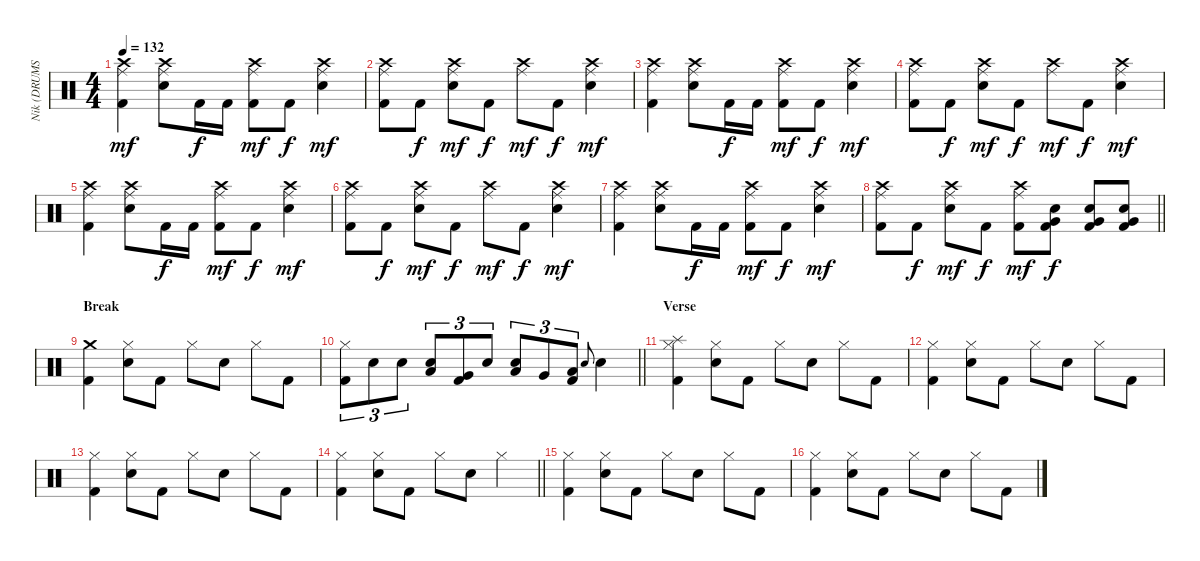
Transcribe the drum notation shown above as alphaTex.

\track ("Nik (DRUMS)" "Nik (DRUMS") {instrument percussion}
\staff {score}
\articulation defaults
\ts (4 4)
\tempo 132
\clef neutral
\ks c
("Crash high (hit)" "Ride (middle)" "Kick (hit) 2").4{dy mf} ("Crash high (hit)" "Ride (middle)" "Electric Snare (hit)").8 "Kick (hit) 2".16{dy f} "Kick (hit) 2".16 ("Crash high (hit)" "Ride (middle)" "Kick (hit) 2").8{dy mf} "Kick (hit) 2".8{dy f} ("Crash high (hit)" "Ride (middle)" "Electric Snare (hit)").4{dy mf} |
("Crash high (hit)" "Ride (middle)" "Kick (hit) 2").8 "Kick (hit) 2".8{dy f} ("Crash high (hit)" "Ride (middle)" "Electric Snare (hit)").8{dy mf} "Kick (hit) 2".8{dy f} ("Crash high (hit)" "Ride (middle)").8{dy mf} "Kick (hit) 2".8{dy f} ("Crash high (hit)" "Ride (middle)" "Electric Snare (hit)").4{dy mf} |
("Crash high (hit)" "Ride (middle)" "Kick (hit) 2").4 ("Crash high (hit)" "Ride (middle)" "Electric Snare (hit)").8 "Kick (hit) 2".16{dy f} "Kick (hit) 2".16 ("Crash high (hit)" "Ride (middle)" "Kick (hit) 2").8{dy mf} "Kick (hit) 2".8{dy f} ("Crash high (hit)" "Ride (middle)" "Electric Snare (hit)").4{dy mf} |
("Crash high (hit)" "Ride (middle)" "Kick (hit) 2").8 "Kick (hit) 2".8{dy f} ("Crash high (hit)" "Ride (middle)" "Electric Snare (hit)").8{dy mf} "Kick (hit) 2".8{dy f} ("Crash high (hit)" "Ride (middle)").8{dy mf} "Kick (hit) 2".8{dy f} ("Crash high (hit)" "Ride (middle)" "Electric Snare (hit)").4{dy mf} |
("Crash high (hit)" "Ride (middle)" "Kick (hit) 2").4 ("Crash high (hit)" "Ride (middle)" "Electric Snare (hit)").8 "Kick (hit) 2".16{dy f} "Kick (hit) 2".16 ("Crash high (hit)" "Ride (middle)" "Kick (hit) 2").8{dy mf} "Kick (hit) 2".8{dy f} ("Crash high (hit)" "Ride (middle)" "Electric Snare (hit)").4{dy mf} |
("Crash high (hit)" "Ride (middle)" "Kick (hit) 2").8 "Kick (hit) 2".8{dy f} ("Crash high (hit)" "Ride (middle)" "Electric Snare (hit)").8{dy mf} "Kick (hit) 2".8{dy f} ("Crash high (hit)" "Ride (middle)").8{dy mf} "Kick (hit) 2".8{dy f} ("Crash high (hit)" "Ride (middle)" "Electric Snare (hit)").4{dy mf} |
("Crash high (hit)" "Ride (middle)" "Kick (hit) 2").4 ("Crash high (hit)" "Ride (middle)" "Electric Snare (hit)").8 "Kick (hit) 2".16{dy f} "Kick (hit) 2".16 ("Crash high (hit)" "Ride (middle)" "Kick (hit) 2").8{dy mf} "Kick (hit) 2".8{dy f} ("Crash high (hit)" "Ride (middle)" "Electric Snare (hit)").4{dy mf} |
\barLineRight lightlight
("Crash high (hit)" "Ride (middle)" "Kick (hit) 2").8 "Kick (hit) 2".8{dy f} ("Crash high (hit)" "Ride (middle)" "Electric Snare (hit)").8{dy mf} "Kick (hit) 2".8{dy f} ("Crash high (hit)" "Ride (middle)" "Kick (hit) 2").8{dy mf} ("Electric Snare (hit)" "Very Low Tom (hit)" "Kick (hit) 2").8{dy f} ("Electric Snare (hit)" "Very Low Tom (hit)" "Kick (hit) 2").8 ("Electric Snare (hit)" "Very Low Tom (hit)" "Kick (hit) 2").8 |
\section ("" "Break")
("Crash medium (hit)" "Kick (hit) 2").4 ("Hi-Hat (closed)" "Electric Snare (hit)").8 "Kick (hit) 2".8 "Hi-Hat (closed)".8 "Electric Snare (hit)".8 "Hi-Hat (closed)".8 "Kick (hit) 2".8 |
\barLineRight lightlight
("Hi-Hat (closed)" "Kick (hit) 2").8{tu (3 2)} "Electric Snare (hit)".8{tu (3 2)} "Electric Snare (hit)".8{tu (3 2)} ("Low Tom (hit)" "Electric Snare (hit)").8{tu (3 2)} ("Very Low Tom (hit)" "Kick (hit) 2").8{tu (3 2)} "Electric Snare (hit)".8{tu (3 2)} ("Low Tom (hit)" "Electric Snare (hit)").8{tu (3 2)} "Very Low Tom (hit)".8{tu (3 2)} ("Low Floor Tom (hit)" "Kick (hit) 2").8{tu (3 2)} "Electric Snare (hit)".8{gr onbeat} "Electric Snare (hit)".4 |
\section ("" "Verse")
("Splash (hit)" "Hi-Hat (closed)" "Kick (hit) 2").4 ("Hi-Hat (closed)" "Electric Snare (hit)").8 "Kick (hit) 2".8 "Hi-Hat (closed)".8 "Electric Snare (hit)".8 "Hi-Hat (closed)".8 "Kick (hit) 2".8 |
("Hi-Hat (closed)" "Kick (hit) 2").4 ("Hi-Hat (closed)" "Electric Snare (hit)").8 "Kick (hit) 2".8 "Hi-Hat (closed)".8 "Electric Snare (hit)".8 "Hi-Hat (closed)".8 "Kick (hit) 2".8 |
("Hi-Hat (closed)" "Kick (hit) 2").4 ("Hi-Hat (closed)" "Electric Snare (hit)").8 "Kick (hit) 2".8 "Hi-Hat (closed)".8 "Electric Snare (hit)".8 "Hi-Hat (closed)".8 "Kick (hit) 2".8 |
\barLineRight lightlight
("Hi-Hat (closed)" "Kick (hit) 2").4 ("Hi-Hat (closed)" "Electric Snare (hit)").8 "Kick (hit) 2".8 "Hi-Hat (closed)".8 "Electric Snare (hit)".8 "Hi-Hat (closed)".4 |
("Hi-Hat (closed)" "Kick (hit) 2").4 ("Hi-Hat (closed)" "Electric Snare (hit)").8 "Kick (hit) 2".8 "Hi-Hat (closed)".8 "Electric Snare (hit)".8 "Hi-Hat (closed)".8 "Kick (hit) 2".8 |
("Hi-Hat (closed)" "Kick (hit) 2").4 ("Hi-Hat (closed)" "Electric Snare (hit)").8 "Kick (hit) 2".8 "Hi-Hat (closed)".8 "Electric Snare (hit)".8 "Hi-Hat (closed)".8 "Kick (hit) 2".8
